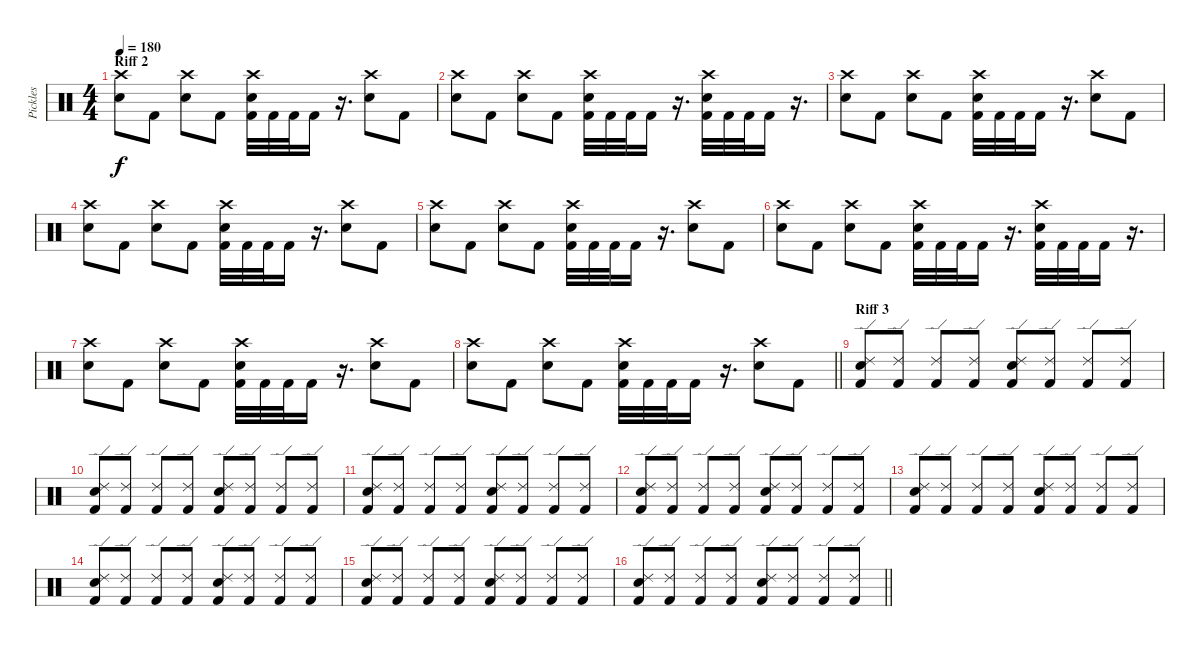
\track ("Pickles" "Pickles") {instrument percussion}
\staff {score}
\articulation defaults
\ts (4 4)
\section ("" "Riff 2")
\tempo 180
\clef neutral
\ks c
("Crash high (hit)" "Snare (hit) 2").8{dy f} "Kick (hit) 2".8 ("Crash high (hit)" "Snare (hit) 2").8 "Kick (hit) 2".8 ("Crash high (hit)" "Snare (hit) 2" "Kick (hit) 2").32 "Kick (hit) 2".32 "Kick (hit) 2".32 "Kick (hit) 2".16 r.16{d} ("Crash high (hit)" "Snare (hit) 2").8 "Kick (hit) 2".8 |
("Crash high (hit)" "Snare (hit) 2").8 "Kick (hit) 2".8 ("Crash high (hit)" "Snare (hit) 2").8 "Kick (hit) 2".8 ("Crash high (hit)" "Snare (hit) 2" "Kick (hit) 2").32 "Kick (hit) 2".32 "Kick (hit) 2".32 "Kick (hit) 2".16 r.16{d} ("Crash high (hit)" "Snare (hit) 2" "Kick (hit) 2").32 "Kick (hit) 2".32 "Kick (hit) 2".32 "Kick (hit) 2".16 r.16{d} |
("Crash high (hit)" "Snare (hit) 2").8 "Kick (hit) 2".8 ("Crash high (hit)" "Snare (hit) 2").8 "Kick (hit) 2".8 ("Crash high (hit)" "Snare (hit) 2" "Kick (hit) 2").32 "Kick (hit) 2".32 "Kick (hit) 2".32 "Kick (hit) 2".16 r.16{d} ("Crash high (hit)" "Snare (hit) 2").8 "Kick (hit) 2".8 |
("Crash high (hit)" "Snare (hit) 2").8 "Kick (hit) 2".8 ("Crash high (hit)" "Snare (hit) 2").8 "Kick (hit) 2".8 ("Crash high (hit)" "Snare (hit) 2" "Kick (hit) 2").32 "Kick (hit) 2".32 "Kick (hit) 2".32 "Kick (hit) 2".16 r.16{d} ("Crash high (hit)" "Snare (hit) 2").8 "Kick (hit) 2".8 |
("Crash high (hit)" "Snare (hit) 2").8 "Kick (hit) 2".8 ("Crash high (hit)" "Snare (hit) 2").8 "Kick (hit) 2".8 ("Crash high (hit)" "Snare (hit) 2" "Kick (hit) 2").32 "Kick (hit) 2".32 "Kick (hit) 2".32 "Kick (hit) 2".16 r.16{d} ("Crash high (hit)" "Snare (hit) 2").8 "Kick (hit) 2".8 |
("Crash high (hit)" "Snare (hit) 2").8 "Kick (hit) 2".8 ("Crash high (hit)" "Snare (hit) 2").8 "Kick (hit) 2".8 ("Crash high (hit)" "Snare (hit) 2" "Kick (hit) 2").32 "Kick (hit) 2".32 "Kick (hit) 2".32 "Kick (hit) 2".16 r.16{d} ("Crash high (hit)" "Snare (hit) 2" "Kick (hit) 2").32 "Kick (hit) 2".32 "Kick (hit) 2".32 "Kick (hit) 2".16 r.16{d} |
("Crash high (hit)" "Snare (hit) 2").8 "Kick (hit) 2".8 ("Crash high (hit)" "Snare (hit) 2").8 "Kick (hit) 2".8 ("Crash high (hit)" "Snare (hit) 2" "Kick (hit) 2").32 "Kick (hit) 2".32 "Kick (hit) 2".32 "Kick (hit) 2".16 r.16{d} ("Crash high (hit)" "Snare (hit) 2").8 "Kick (hit) 2".8 |
\barLineRight lightlight
("Crash high (hit)" "Snare (hit) 2").8 "Kick (hit) 2".8 ("Crash high (hit)" "Snare (hit) 2").8 "Kick (hit) 2".8 ("Crash high (hit)" "Snare (hit) 2" "Kick (hit) 2").32 "Kick (hit) 2".32 "Kick (hit) 2".32 "Kick (hit) 2".16 r.16{d} ("Crash high (hit)" "Snare (hit) 2").8 "Kick (hit) 2".8 |
\section ("" "Riff 3")
("Ride (edge) 2" "Snare (hit) 2" "Kick (hit) 2").8 ("Ride (edge) 2" "Kick (hit) 2").8 ("Ride (edge) 2" "Kick (hit) 2").8 ("Ride (edge) 2" "Kick (hit) 2").8 ("Ride (edge) 2" "Snare (hit) 2" "Kick (hit) 2").8 ("Ride (edge) 2" "Kick (hit) 2").8 ("Ride (edge) 2" "Kick (hit) 2").8 ("Ride (edge) 2" "Kick (hit) 2").8 |
("Ride (edge) 2" "Snare (hit) 2" "Kick (hit) 2").8 ("Ride (edge) 2" "Kick (hit) 2").8 ("Ride (edge) 2" "Kick (hit) 2").8 ("Ride (edge) 2" "Kick (hit) 2").8 ("Ride (edge) 2" "Snare (hit) 2" "Kick (hit) 2").8 ("Ride (edge) 2" "Kick (hit) 2").8 ("Ride (edge) 2" "Kick (hit) 2").8 ("Ride (edge) 2" "Kick (hit) 2").8 |
("Ride (edge) 2" "Snare (hit) 2" "Kick (hit) 2").8 ("Ride (edge) 2" "Kick (hit) 2").8 ("Ride (edge) 2" "Kick (hit) 2").8 ("Ride (edge) 2" "Kick (hit) 2").8 ("Ride (edge) 2" "Snare (hit) 2" "Kick (hit) 2").8 ("Ride (edge) 2" "Kick (hit) 2").8 ("Ride (edge) 2" "Kick (hit) 2").8 ("Ride (edge) 2" "Kick (hit) 2").8 |
("Ride (edge) 2" "Snare (hit) 2" "Kick (hit) 2").8 ("Ride (edge) 2" "Kick (hit) 2").8 ("Ride (edge) 2" "Kick (hit) 2").8 ("Ride (edge) 2" "Kick (hit) 2").8 ("Ride (edge) 2" "Snare (hit) 2" "Kick (hit) 2").8 ("Ride (edge) 2" "Kick (hit) 2").8 ("Ride (edge) 2" "Kick (hit) 2").8 ("Ride (edge) 2" "Kick (hit) 2").8 |
("Ride (edge) 2" "Snare (hit) 2" "Kick (hit) 2").8 ("Ride (edge) 2" "Kick (hit) 2").8 ("Ride (edge) 2" "Kick (hit) 2").8 ("Ride (edge) 2" "Kick (hit) 2").8 ("Ride (edge) 2" "Snare (hit) 2" "Kick (hit) 2").8 ("Ride (edge) 2" "Kick (hit) 2").8 ("Ride (edge) 2" "Kick (hit) 2").8 ("Ride (edge) 2" "Kick (hit) 2").8 |
("Ride (edge) 2" "Snare (hit) 2" "Kick (hit) 2").8 ("Ride (edge) 2" "Kick (hit) 2").8 ("Ride (edge) 2" "Kick (hit) 2").8 ("Ride (edge) 2" "Kick (hit) 2").8 ("Ride (edge) 2" "Snare (hit) 2" "Kick (hit) 2").8 ("Ride (edge) 2" "Kick (hit) 2").8 ("Ride (edge) 2" "Kick (hit) 2").8 ("Ride (edge) 2" "Kick (hit) 2").8 |
("Ride (edge) 2" "Snare (hit) 2" "Kick (hit) 2").8 ("Ride (edge) 2" "Kick (hit) 2").8 ("Ride (edge) 2" "Kick (hit) 2").8 ("Ride (edge) 2" "Kick (hit) 2").8 ("Ride (edge) 2" "Snare (hit) 2" "Kick (hit) 2").8 ("Ride (edge) 2" "Kick (hit) 2").8 ("Ride (edge) 2" "Kick (hit) 2").8 ("Ride (edge) 2" "Kick (hit) 2").8 |
\barLineRight lightlight
("Ride (edge) 2" "Snare (hit) 2" "Kick (hit) 2").8 ("Ride (edge) 2" "Kick (hit) 2").8 ("Ride (edge) 2" "Kick (hit) 2").8 ("Ride (edge) 2" "Kick (hit) 2").8 ("Ride (edge) 2" "Snare (hit) 2" "Kick (hit) 2").8 ("Ride (edge) 2" "Kick (hit) 2").8 ("Ride (edge) 2" "Kick (hit) 2").8 ("Ride (edge) 2" "Kick (hit) 2").8
